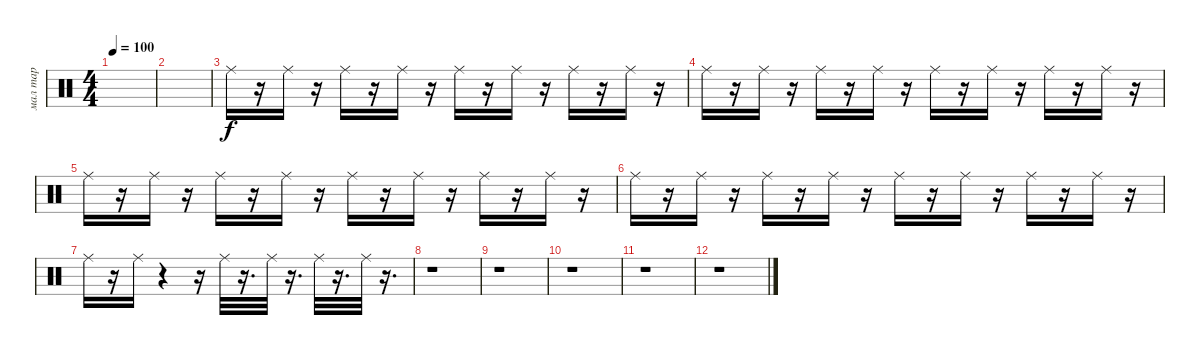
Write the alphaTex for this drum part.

\track ("мал тар" "мал тар") {instrument percussion}
\staff {score}
\articulation defaults
\ts (4 4)
\tempo 100
\clef neutral
\ks c
|
|
"Ride (middle)".16 r.16 "Ride (middle)".16 r.16 "Ride (middle)".16 r.16 "Ride (middle)".16 r.16 "Ride (middle)".16 r.16 "Ride (middle)".16 r.16 "Ride (middle)".16 r.16 "Ride (middle)".16 r.16 |
"Ride (middle)".16 r.16 "Ride (middle)".16 r.16 "Ride (middle)".16 r.16 "Ride (middle)".16 r.16 "Ride (middle)".16 r.16 "Ride (middle)".16 r.16 "Ride (middle)".16 r.16 "Ride (middle)".16 r.16 |
"Ride (middle)".16 r.16 "Ride (middle)".16 r.16 "Ride (middle)".16 r.16 "Ride (middle)".16 r.16 "Ride (middle)".16 r.16 "Ride (middle)".16 r.16 "Ride (middle)".16 r.16 "Ride (middle)".16 r.16 |
"Ride (middle)".16 r.16 "Ride (middle)".16 r.16 "Ride (middle)".16 r.16 "Ride (middle)".16 r.16 "Ride (middle)".16 r.16 "Ride (middle)".16 r.16 "Ride (middle)".16 r.16 "Ride (middle)".16 r.16 |
"Ride (middle)".16 r.16 "Ride (middle)".16 r.4 r.16 "Ride (middle)".32 r.16{d} "Ride (middle)".32 r.16{d} "Ride (middle)".32 r.16{d} "Ride (middle)".32 r.16{d} |
r.1 |
r.1 |
r.1 |
r.1 |
r.1
